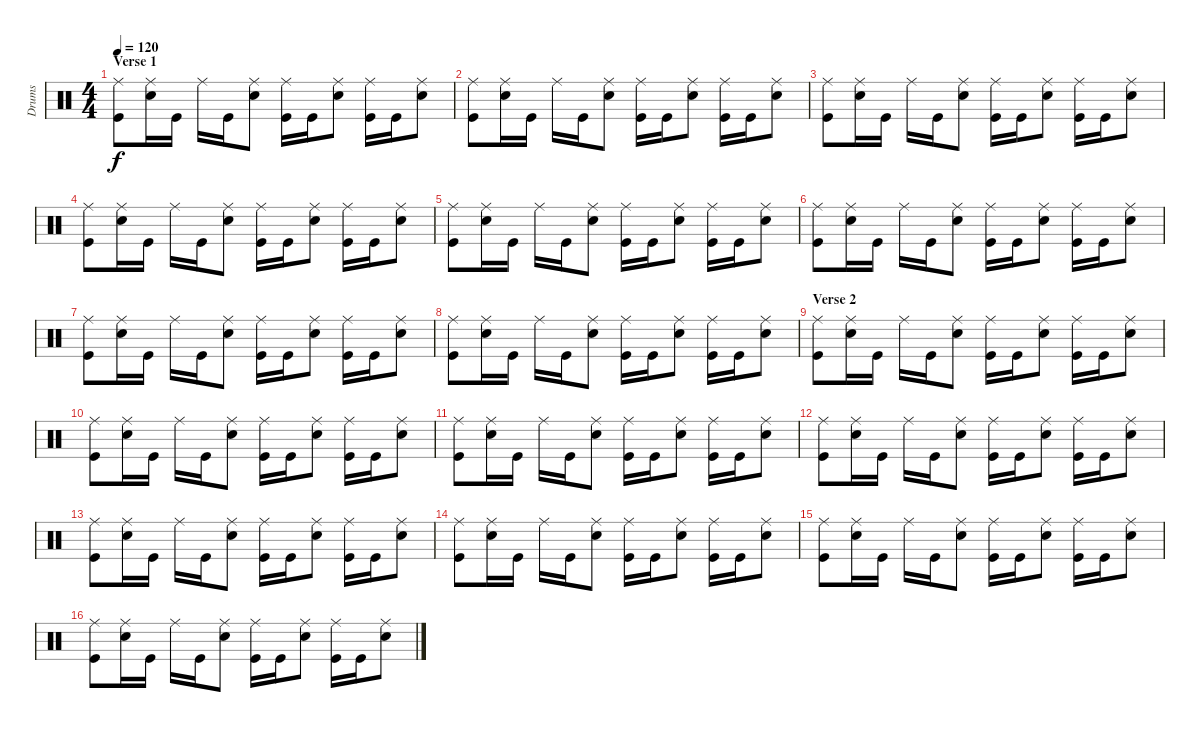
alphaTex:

\track ("Drums" "Drums") {instrument percussion}
\staff {score}
\articulation defaults
\ts (4 4)
\section ("" "Verse 1")
\tempo 120
\clef neutral
\ks c
("Ride (middle)" "Kick (hit)").8{dy f} ("Ride (middle)" "Snare (hit) 2").16 "Kick (hit)".16 "Ride (middle)".16 "Kick (hit)".16 ("Ride (middle)" "Snare (hit) 2").8 ("Ride (middle)" "Kick (hit)").16 "Kick (hit)".16 ("Ride (middle)" "Snare (hit) 2").8 ("Ride (middle)" "Kick (hit)").16 "Kick (hit)".16 ("Ride (middle)" "Snare (hit) 2").8 |
("Ride (middle)" "Kick (hit)").8 ("Ride (middle)" "Snare (hit) 2").16 "Kick (hit)".16 "Ride (middle)".16 "Kick (hit)".16 ("Ride (middle)" "Snare (hit) 2").8 ("Ride (middle)" "Kick (hit)").16 "Kick (hit)".16 ("Ride (middle)" "Snare (hit) 2").8 ("Ride (middle)" "Kick (hit)").16 "Kick (hit)".16 ("Ride (middle)" "Snare (hit) 2").8 |
("Ride (middle)" "Kick (hit)").8 ("Ride (middle)" "Snare (hit) 2").16 "Kick (hit)".16 "Ride (middle)".16 "Kick (hit)".16 ("Ride (middle)" "Snare (hit) 2").8 ("Ride (middle)" "Kick (hit)").16 "Kick (hit)".16 ("Ride (middle)" "Snare (hit) 2").8 ("Ride (middle)" "Kick (hit)").16 "Kick (hit)".16 ("Ride (middle)" "Snare (hit) 2").8 |
("Ride (middle)" "Kick (hit)").8 ("Ride (middle)" "Snare (hit) 2").16 "Kick (hit)".16 "Ride (middle)".16 "Kick (hit)".16 ("Ride (middle)" "Snare (hit) 2").8 ("Ride (middle)" "Kick (hit)").16 "Kick (hit)".16 ("Ride (middle)" "Snare (hit) 2").8 ("Ride (middle)" "Kick (hit)").16 "Kick (hit)".16 ("Ride (middle)" "Snare (hit) 2").8 |
("Ride (middle)" "Kick (hit)").8 ("Ride (middle)" "Snare (hit) 2").16 "Kick (hit)".16 "Ride (middle)".16 "Kick (hit)".16 ("Ride (middle)" "Snare (hit) 2").8 ("Ride (middle)" "Kick (hit)").16 "Kick (hit)".16 ("Ride (middle)" "Snare (hit) 2").8 ("Ride (middle)" "Kick (hit)").16 "Kick (hit)".16 ("Ride (middle)" "Snare (hit) 2").8 |
("Ride (middle)" "Kick (hit)").8 ("Ride (middle)" "Snare (hit) 2").16 "Kick (hit)".16 "Ride (middle)".16 "Kick (hit)".16 ("Ride (middle)" "Snare (hit) 2").8 ("Ride (middle)" "Kick (hit)").16 "Kick (hit)".16 ("Ride (middle)" "Snare (hit) 2").8 ("Ride (middle)" "Kick (hit)").16 "Kick (hit)".16 ("Ride (middle)" "Snare (hit) 2").8 |
("Ride (middle)" "Kick (hit)").8 ("Ride (middle)" "Snare (hit) 2").16 "Kick (hit)".16 "Ride (middle)".16 "Kick (hit)".16 ("Ride (middle)" "Snare (hit) 2").8 ("Ride (middle)" "Kick (hit)").16 "Kick (hit)".16 ("Ride (middle)" "Snare (hit) 2").8 ("Ride (middle)" "Kick (hit)").16 "Kick (hit)".16 ("Ride (middle)" "Snare (hit) 2").8 |
("Ride (middle)" "Kick (hit)").8 ("Ride (middle)" "Snare (hit) 2").16 "Kick (hit)".16 "Ride (middle)".16 "Kick (hit)".16 ("Ride (middle)" "Snare (hit) 2").8 ("Ride (middle)" "Kick (hit)").16 "Kick (hit)".16 ("Ride (middle)" "Snare (hit) 2").8 ("Ride (middle)" "Kick (hit)").16 "Kick (hit)".16 ("Ride (middle)" "Snare (hit) 2").8 |
\section ("" "Verse 2")
("Ride (middle)" "Kick (hit)").8 ("Ride (middle)" "Snare (hit) 2").16 "Kick (hit)".16 "Ride (middle)".16 "Kick (hit)".16 ("Ride (middle)" "Snare (hit) 2").8 ("Ride (middle)" "Kick (hit)").16 "Kick (hit)".16 ("Ride (middle)" "Snare (hit) 2").8 ("Ride (middle)" "Kick (hit)").16 "Kick (hit)".16 ("Ride (middle)" "Snare (hit) 2").8 |
("Ride (middle)" "Kick (hit)").8 ("Ride (middle)" "Snare (hit) 2").16 "Kick (hit)".16 "Ride (middle)".16 "Kick (hit)".16 ("Ride (middle)" "Snare (hit) 2").8 ("Ride (middle)" "Kick (hit)").16 "Kick (hit)".16 ("Ride (middle)" "Snare (hit) 2").8 ("Ride (middle)" "Kick (hit)").16 "Kick (hit)".16 ("Ride (middle)" "Snare (hit) 2").8 |
("Ride (middle)" "Kick (hit)").8 ("Ride (middle)" "Snare (hit) 2").16 "Kick (hit)".16 "Ride (middle)".16 "Kick (hit)".16 ("Ride (middle)" "Snare (hit) 2").8 ("Ride (middle)" "Kick (hit)").16 "Kick (hit)".16 ("Ride (middle)" "Snare (hit) 2").8 ("Ride (middle)" "Kick (hit)").16 "Kick (hit)".16 ("Ride (middle)" "Snare (hit) 2").8 |
("Ride (middle)" "Kick (hit)").8 ("Ride (middle)" "Snare (hit) 2").16 "Kick (hit)".16 "Ride (middle)".16 "Kick (hit)".16 ("Ride (middle)" "Snare (hit) 2").8 ("Ride (middle)" "Kick (hit)").16 "Kick (hit)".16 ("Ride (middle)" "Snare (hit) 2").8 ("Ride (middle)" "Kick (hit)").16 "Kick (hit)".16 ("Ride (middle)" "Snare (hit) 2").8 |
("Ride (middle)" "Kick (hit)").8 ("Ride (middle)" "Snare (hit) 2").16 "Kick (hit)".16 "Ride (middle)".16 "Kick (hit)".16 ("Ride (middle)" "Snare (hit) 2").8 ("Ride (middle)" "Kick (hit)").16 "Kick (hit)".16 ("Ride (middle)" "Snare (hit) 2").8 ("Ride (middle)" "Kick (hit)").16 "Kick (hit)".16 ("Ride (middle)" "Snare (hit) 2").8 |
("Ride (middle)" "Kick (hit)").8 ("Ride (middle)" "Snare (hit) 2").16 "Kick (hit)".16 "Ride (middle)".16 "Kick (hit)".16 ("Ride (middle)" "Snare (hit) 2").8 ("Ride (middle)" "Kick (hit)").16 "Kick (hit)".16 ("Ride (middle)" "Snare (hit) 2").8 ("Ride (middle)" "Kick (hit)").16 "Kick (hit)".16 ("Ride (middle)" "Snare (hit) 2").8 |
("Ride (middle)" "Kick (hit)").8 ("Ride (middle)" "Snare (hit) 2").16 "Kick (hit)".16 "Ride (middle)".16 "Kick (hit)".16 ("Ride (middle)" "Snare (hit) 2").8 ("Ride (middle)" "Kick (hit)").16 "Kick (hit)".16 ("Ride (middle)" "Snare (hit) 2").8 ("Ride (middle)" "Kick (hit)").16 "Kick (hit)".16 ("Ride (middle)" "Snare (hit) 2").8 |
("Ride (middle)" "Kick (hit)").8 ("Ride (middle)" "Snare (hit) 2").16 "Kick (hit)".16 "Ride (middle)".16 "Kick (hit)".16 ("Ride (middle)" "Snare (hit) 2").8 ("Ride (middle)" "Kick (hit)").16 "Kick (hit)".16 ("Ride (middle)" "Snare (hit) 2").8 ("Ride (middle)" "Kick (hit)").16 "Kick (hit)".16 ("Ride (middle)" "Snare (hit) 2").8
